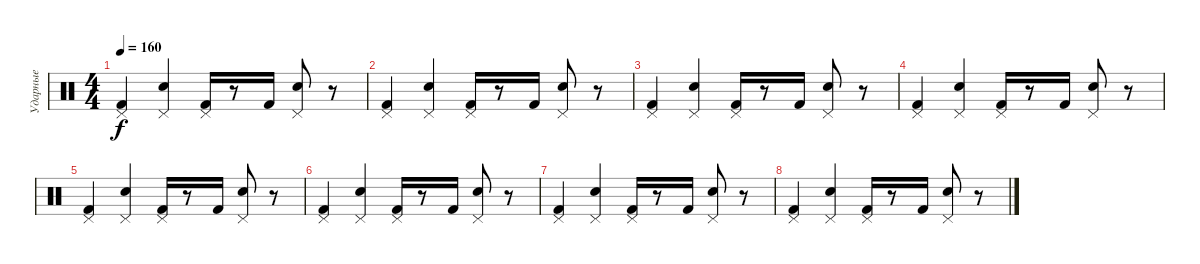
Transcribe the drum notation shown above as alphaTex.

\track ("Ударные" "Ударные") {instrument percussion}
\staff {score}
\articulation defaults
\ts (4 4)
\tempo 160
\clef neutral
\ks c
("Pedal Hi-Hat (hit)" "Kick (hit) 2").4{dy f} ("Pedal Hi-Hat (hit)" "Snare (hit) 2").4 ("Pedal Hi-Hat (hit)" "Kick (hit) 2").16 r.8 "Kick (hit) 2".16 ("Pedal Hi-Hat (hit)" "Snare (hit) 2").8 r.8 |
("Pedal Hi-Hat (hit)" "Kick (hit) 2").4 ("Pedal Hi-Hat (hit)" "Snare (hit) 2").4 ("Pedal Hi-Hat (hit)" "Kick (hit) 2").16 r.8 "Kick (hit) 2".16 ("Pedal Hi-Hat (hit)" "Snare (hit) 2").8 r.8 |
("Pedal Hi-Hat (hit)" "Kick (hit) 2").4 ("Pedal Hi-Hat (hit)" "Snare (hit) 2").4 ("Pedal Hi-Hat (hit)" "Kick (hit) 2").16 r.8 "Kick (hit) 2".16 ("Pedal Hi-Hat (hit)" "Snare (hit) 2").8 r.8 |
("Pedal Hi-Hat (hit)" "Kick (hit) 2").4 ("Pedal Hi-Hat (hit)" "Snare (hit) 2").4 ("Pedal Hi-Hat (hit)" "Kick (hit) 2").16 r.8 "Kick (hit) 2".16 ("Pedal Hi-Hat (hit)" "Snare (hit) 2").8 r.8 |
("Pedal Hi-Hat (hit)" "Kick (hit) 2").4 ("Pedal Hi-Hat (hit)" "Snare (hit) 2").4 ("Pedal Hi-Hat (hit)" "Kick (hit) 2").16 r.8 "Kick (hit) 2".16 ("Pedal Hi-Hat (hit)" "Snare (hit) 2").8 r.8 |
("Pedal Hi-Hat (hit)" "Kick (hit) 2").4 ("Pedal Hi-Hat (hit)" "Snare (hit) 2").4 ("Pedal Hi-Hat (hit)" "Kick (hit) 2").16 r.8 "Kick (hit) 2".16 ("Pedal Hi-Hat (hit)" "Snare (hit) 2").8 r.8 |
("Pedal Hi-Hat (hit)" "Kick (hit) 2").4 ("Pedal Hi-Hat (hit)" "Snare (hit) 2").4 ("Pedal Hi-Hat (hit)" "Kick (hit) 2").16 r.8 "Kick (hit) 2".16 ("Pedal Hi-Hat (hit)" "Snare (hit) 2").8 r.8 |
("Pedal Hi-Hat (hit)" "Kick (hit) 2").4 ("Pedal Hi-Hat (hit)" "Snare (hit) 2").4 ("Pedal Hi-Hat (hit)" "Kick (hit) 2").16 r.8 "Kick (hit) 2".16 ("Pedal Hi-Hat (hit)" "Snare (hit) 2").8 r.8
